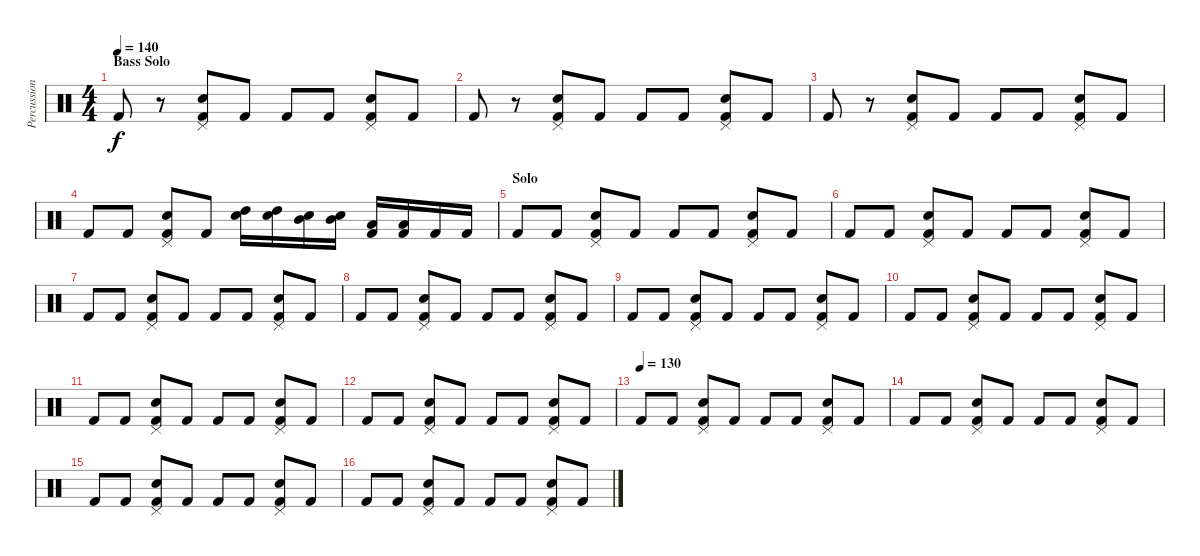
\track ("Percussion" "Percussion") {instrument percussion}
\staff {score}
\articulation defaults
\ts (4 4)
\section ("" "Bass Solo")
\tempo 140
\clef neutral
\ks c "Kick (hit) 2".8{dy f}
r.8 ("Snare (hit) 2" "Kick (hit) 2" "Pedal Hi-Hat (hit)").8 "Kick (hit) 2".8 "Kick (hit) 2".8 "Kick (hit) 2".8 ("Snare (hit) 2" "Kick (hit) 2" "Pedal Hi-Hat (hit)").8 "Kick (hit) 2".8 |
"Kick (hit) 2".8 r.8 ("Snare (hit) 2" "Kick (hit) 2" "Pedal Hi-Hat (hit)").8 "Kick (hit) 2".8 "Kick (hit) 2".8 "Kick (hit) 2".8 ("Snare (hit) 2" "Kick (hit) 2" "Pedal Hi-Hat (hit)").8 "Kick (hit) 2".8 |
"Kick (hit) 2".8 r.8 ("Snare (hit) 2" "Kick (hit) 2" "Pedal Hi-Hat (hit)").8 "Kick (hit) 2".8 "Kick (hit) 2".8 "Kick (hit) 2".8 ("Snare (hit) 2" "Kick (hit) 2" "Pedal Hi-Hat (hit)").8 "Kick (hit) 2".8 |
"Kick (hit) 2".8 "Kick (hit) 2".8 ("Snare (hit) 2" "Kick (hit) 2" "Pedal Hi-Hat (hit)").8 "Kick (hit) 2".8 ("Electric Snare (hit)" "High Tom (hit)").16 ("Electric Snare (hit)" "High Tom (hit)").16 ("Electric Snare (hit)" "Mid Tom (hit)").16 ("Electric Snare (hit)" "Mid Tom (hit)").16 ("Kick (hit) 2" "Low Tom (hit)").16 ("Kick (hit) 2" "Low Tom (hit)").16 "Kick (hit) 2".16 "Kick (hit) 2".16 |
\section ("" "Solo")
"Kick (hit) 2".8 "Kick (hit) 2".8 ("Snare (hit) 2" "Kick (hit) 2" "Pedal Hi-Hat (hit)").8 "Kick (hit) 2".8 "Kick (hit) 2".8 "Kick (hit) 2".8 ("Snare (hit) 2" "Kick (hit) 2" "Pedal Hi-Hat (hit)").8 "Kick (hit) 2".8 |
"Kick (hit) 2".8 "Kick (hit) 2".8 ("Snare (hit) 2" "Kick (hit) 2" "Pedal Hi-Hat (hit)").8 "Kick (hit) 2".8 "Kick (hit) 2".8 "Kick (hit) 2".8 ("Snare (hit) 2" "Kick (hit) 2" "Pedal Hi-Hat (hit)").8 "Kick (hit) 2".8 |
"Kick (hit) 2".8 "Kick (hit) 2".8 ("Snare (hit) 2" "Kick (hit) 2" "Pedal Hi-Hat (hit)").8 "Kick (hit) 2".8 "Kick (hit) 2".8 "Kick (hit) 2".8 ("Snare (hit) 2" "Kick (hit) 2" "Pedal Hi-Hat (hit)").8 "Kick (hit) 2".8 |
"Kick (hit) 2".8 "Kick (hit) 2".8 ("Snare (hit) 2" "Kick (hit) 2" "Pedal Hi-Hat (hit)").8 "Kick (hit) 2".8 "Kick (hit) 2".8 "Kick (hit) 2".8 ("Snare (hit) 2" "Kick (hit) 2" "Pedal Hi-Hat (hit)").8 "Kick (hit) 2".8 |
"Kick (hit) 2".8 "Kick (hit) 2".8 ("Snare (hit) 2" "Kick (hit) 2" "Pedal Hi-Hat (hit)").8 "Kick (hit) 2".8 "Kick (hit) 2".8 "Kick (hit) 2".8 ("Snare (hit) 2" "Kick (hit) 2" "Pedal Hi-Hat (hit)").8 "Kick (hit) 2".8 |
"Kick (hit) 2".8 "Kick (hit) 2".8 ("Snare (hit) 2" "Kick (hit) 2" "Pedal Hi-Hat (hit)").8 "Kick (hit) 2".8 "Kick (hit) 2".8 "Kick (hit) 2".8 ("Snare (hit) 2" "Kick (hit) 2" "Pedal Hi-Hat (hit)").8 "Kick (hit) 2".8 |
"Kick (hit) 2".8 "Kick (hit) 2".8 ("Snare (hit) 2" "Kick (hit) 2" "Pedal Hi-Hat (hit)").8 "Kick (hit) 2".8 "Kick (hit) 2".8 "Kick (hit) 2".8 ("Snare (hit) 2" "Kick (hit) 2" "Pedal Hi-Hat (hit)").8 "Kick (hit) 2".8 |
"Kick (hit) 2".8 "Kick (hit) 2".8 ("Snare (hit) 2" "Kick (hit) 2" "Pedal Hi-Hat (hit)").8 "Kick (hit) 2".8 "Kick (hit) 2".8 "Kick (hit) 2".8 ("Snare (hit) 2" "Kick (hit) 2" "Pedal Hi-Hat (hit)").8 "Kick (hit) 2".8 |
\tempo (130)
"Kick (hit) 2".8 "Kick (hit) 2".8 ("Snare (hit) 2" "Kick (hit) 2" "Pedal Hi-Hat (hit)").8 "Kick (hit) 2".8 "Kick (hit) 2".8 "Kick (hit) 2".8 ("Snare (hit) 2" "Kick (hit) 2" "Pedal Hi-Hat (hit)").8 "Kick (hit) 2".8 |
"Kick (hit) 2".8 "Kick (hit) 2".8 ("Snare (hit) 2" "Kick (hit) 2" "Pedal Hi-Hat (hit)").8 "Kick (hit) 2".8 "Kick (hit) 2".8 "Kick (hit) 2".8 ("Snare (hit) 2" "Kick (hit) 2" "Pedal Hi-Hat (hit)").8 "Kick (hit) 2".8 |
"Kick (hit) 2".8 "Kick (hit) 2".8 ("Snare (hit) 2" "Kick (hit) 2" "Pedal Hi-Hat (hit)").8 "Kick (hit) 2".8 "Kick (hit) 2".8 "Kick (hit) 2".8 ("Snare (hit) 2" "Kick (hit) 2" "Pedal Hi-Hat (hit)").8 "Kick (hit) 2".8 |
"Kick (hit) 2".8 "Kick (hit) 2".8 ("Snare (hit) 2" "Kick (hit) 2" "Pedal Hi-Hat (hit)").8 "Kick (hit) 2".8 "Kick (hit) 2".8 "Kick (hit) 2".8 ("Snare (hit) 2" "Kick (hit) 2" "Pedal Hi-Hat (hit)").8 "Kick (hit) 2".8
